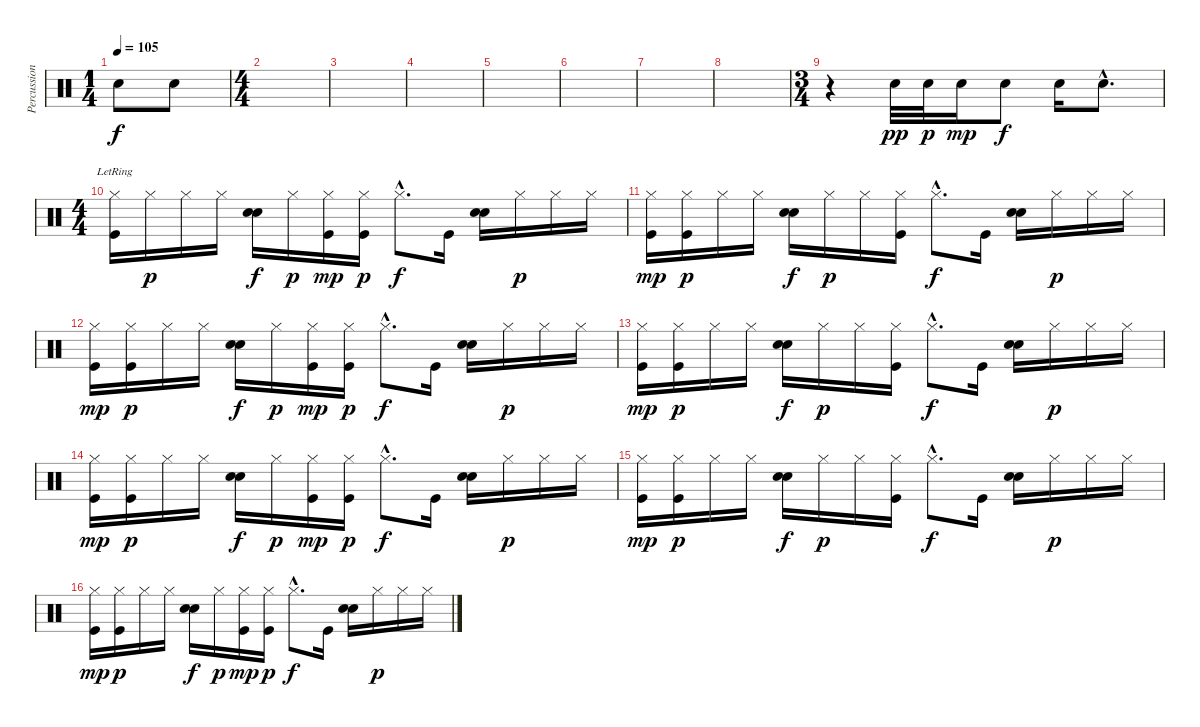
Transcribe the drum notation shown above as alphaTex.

\track ("Percussions" "Percussion") {instrument percussion}
\staff {score}
\articulation defaults
\ts (1 4)
\tempo 105
\clef neutral
\ks c "Hand Clap (hit)".8{dy f} "Hand Clap (hit)".8
|
\ts (4 4)
|
|
|
|
|
|
|
\ts (3 4)
r.4 "Snare (hit) 2".32{dy pp} "Snare (hit) 2".32{dy p} "Snare (hit) 2".16{dy mp} "Snare (hit) 2".8{dy f} "Snare (hit) 2".16 "Snare (hit) 2"{hac}.8{d} |
\ts (4 4)
("Hi-Hat (closed)"{lr} "Kick (hit)").16 "Hi-Hat (closed)".16{dy p} "Hi-Hat (closed)".16 "Hi-Hat (closed)".16 ("Hand Clap (hit)" "Snare (hit) 2").16{dy f} "Hi-Hat (closed)".16{dy p} ("Hi-Hat (closed)" "Kick (hit)").16{dy mp} ("Hi-Hat (closed)" "Kick (hit)").16{dy p} "Hi-Hat (closed)"{hac}.8{d dy f} "Kick (hit)".16 ("Hand Clap (hit)" "Snare (hit) 2").16 "Hi-Hat (closed)".16{dy p} "Hi-Hat (closed)".16 "Hi-Hat (closed)".16 |
("Hi-Hat (closed)" "Kick (hit)").16{dy mp} ("Hi-Hat (closed)" "Kick (hit)").16{dy p} "Hi-Hat (closed)".16 "Hi-Hat (closed)".16 ("Hand Clap (hit)" "Snare (hit) 2").16{dy f} "Hi-Hat (closed)".16{dy p} "Hi-Hat (closed)".16 ("Hi-Hat (closed)" "Kick (hit)").16 "Hi-Hat (closed)"{hac}.8{d dy f} "Kick (hit)".16 ("Hand Clap (hit)" "Snare (hit) 2").16 "Hi-Hat (closed)".16{dy p} "Hi-Hat (closed)".16 "Hi-Hat (closed)".16 |
("Hi-Hat (closed)" "Kick (hit)").16{dy mp} ("Hi-Hat (closed)" "Kick (hit)").16{dy p} "Hi-Hat (closed)".16 "Hi-Hat (closed)".16 ("Hand Clap (hit)" "Snare (hit) 2").16{dy f} "Hi-Hat (closed)".16{dy p} ("Hi-Hat (closed)" "Kick (hit)").16{dy mp} ("Hi-Hat (closed)" "Kick (hit)").16{dy p} "Hi-Hat (closed)"{hac}.8{d dy f} "Kick (hit)".16 ("Hand Clap (hit)" "Snare (hit) 2").16 "Hi-Hat (closed)".16{dy p} "Hi-Hat (closed)".16 "Hi-Hat (closed)".16 |
("Hi-Hat (closed)" "Kick (hit)").16{dy mp} ("Hi-Hat (closed)" "Kick (hit)").16{dy p} "Hi-Hat (closed)".16 "Hi-Hat (closed)".16 ("Hand Clap (hit)" "Snare (hit) 2").16{dy f} "Hi-Hat (closed)".16{dy p} "Hi-Hat (closed)".16 ("Hi-Hat (closed)" "Kick (hit)").16 "Hi-Hat (closed)"{hac}.8{d dy f} "Kick (hit)".16 ("Hand Clap (hit)" "Snare (hit) 2").16 "Hi-Hat (closed)".16{dy p} "Hi-Hat (closed)".16 "Hi-Hat (closed)".16 |
("Hi-Hat (closed)" "Kick (hit)").16{dy mp} ("Hi-Hat (closed)" "Kick (hit)").16{dy p} "Hi-Hat (closed)".16 "Hi-Hat (closed)".16 ("Hand Clap (hit)" "Snare (hit) 2").16{dy f} "Hi-Hat (closed)".16{dy p} ("Hi-Hat (closed)" "Kick (hit)").16{dy mp} ("Hi-Hat (closed)" "Kick (hit)").16{dy p} "Hi-Hat (closed)"{hac}.8{d dy f} "Kick (hit)".16 ("Hand Clap (hit)" "Snare (hit) 2").16 "Hi-Hat (closed)".16{dy p} "Hi-Hat (closed)".16 "Hi-Hat (closed)".16 |
("Hi-Hat (closed)" "Kick (hit)").16{dy mp} ("Hi-Hat (closed)" "Kick (hit)").16{dy p} "Hi-Hat (closed)".16 "Hi-Hat (closed)".16 ("Hand Clap (hit)" "Snare (hit) 2").16{dy f} "Hi-Hat (closed)".16{dy p} "Hi-Hat (closed)".16 ("Hi-Hat (closed)" "Kick (hit)").16 "Hi-Hat (closed)"{hac}.8{d dy f} "Kick (hit)".16 ("Hand Clap (hit)" "Snare (hit) 2").16 "Hi-Hat (closed)".16{dy p} "Hi-Hat (closed)".16 "Hi-Hat (closed)".16 |
("Hi-Hat (closed)" "Kick (hit)").16{dy mp} ("Hi-Hat (closed)" "Kick (hit)").16{dy p} "Hi-Hat (closed)".16 "Hi-Hat (closed)".16 ("Hand Clap (hit)" "Snare (hit) 2").16{dy f} "Hi-Hat (closed)".16{dy p} ("Hi-Hat (closed)" "Kick (hit)").16{dy mp} ("Hi-Hat (closed)" "Kick (hit)").16{dy p} "Hi-Hat (closed)"{hac}.8{d dy f} "Kick (hit)".16 ("Hand Clap (hit)" "Snare (hit) 2").16 "Hi-Hat (closed)".16{dy p} "Hi-Hat (closed)".16 "Hi-Hat (closed)".16
